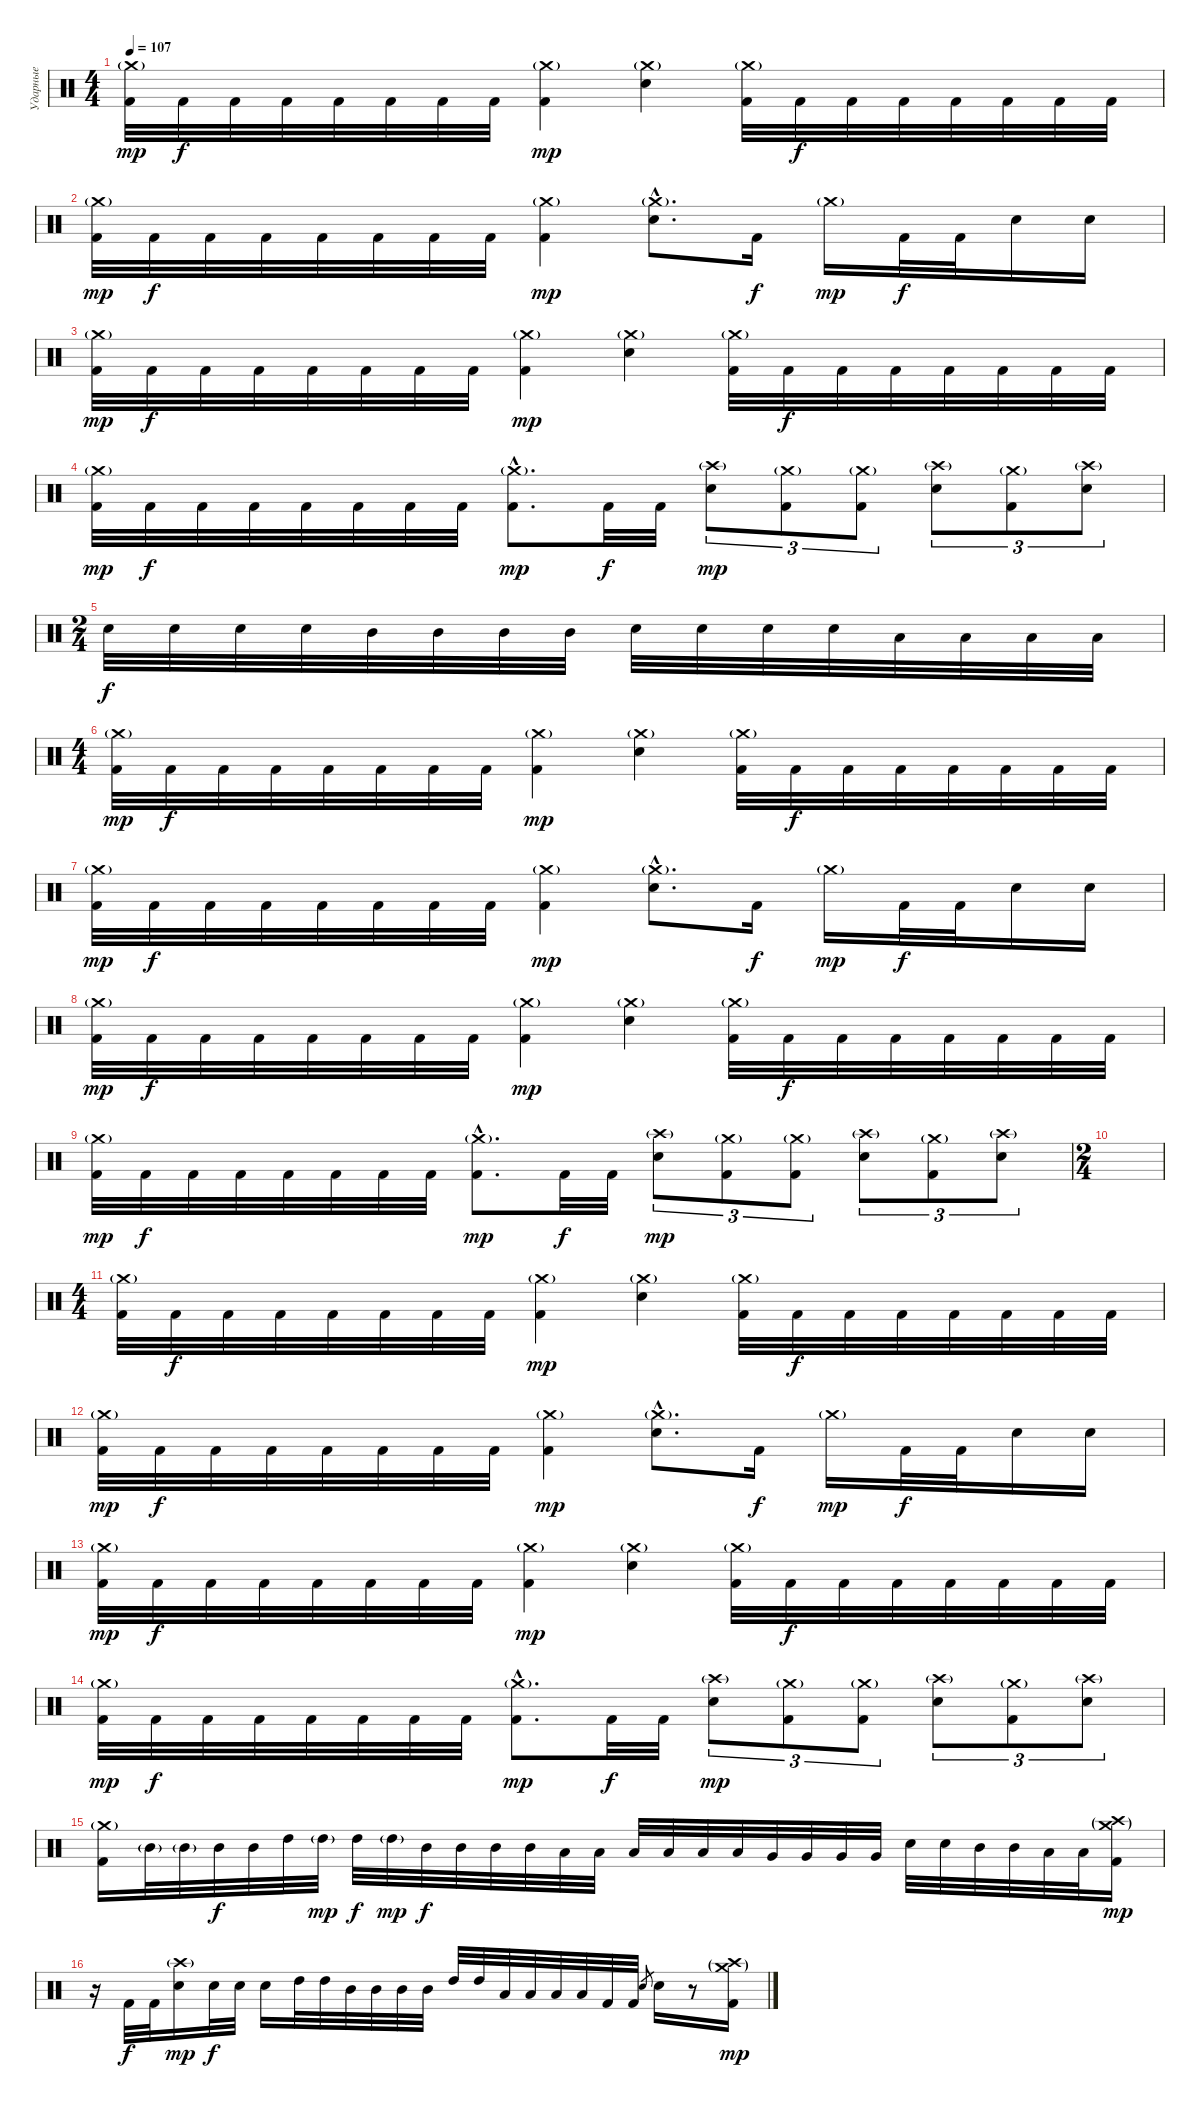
\track ("Ударные" "Ударные") {instrument percussion}
\staff {score}
\articulation defaults
\ts (4 4)
\tempo 107
\clef neutral
\ks c
("Crash medium (hit)"{g} "Kick (hit) 2").32{dy mp} "Kick (hit) 2".32{dy f} "Kick (hit) 2".32 "Kick (hit) 2".32 "Kick (hit) 2".32 "Kick (hit) 2".32 "Kick (hit) 2".32 "Kick (hit) 2".32 ("Crash medium (hit)"{g} "Kick (hit) 2").4{dy mp} ("Crash medium (hit)"{g} "Electric Snare (hit)").4 ("Crash medium (hit)"{g} "Kick (hit) 2").32 "Kick (hit) 2".32{dy f} "Kick (hit) 2".32 "Kick (hit) 2".32 "Kick (hit) 2".32 "Kick (hit) 2".32 "Kick (hit) 2".32 "Kick (hit) 2".32 |
("Crash medium (hit)"{g} "Kick (hit) 2").32{dy mp} "Kick (hit) 2".32{dy f} "Kick (hit) 2".32 "Kick (hit) 2".32 "Kick (hit) 2".32 "Kick (hit) 2".32 "Kick (hit) 2".32 "Kick (hit) 2".32 ("Crash medium (hit)"{g} "Kick (hit) 2").4{dy mp} ("Crash medium (hit)"{g hac} "Electric Snare (hit)"{hac}).8{d} "Kick (hit) 2".16{dy f} "Crash medium (hit)"{g}.16{dy mp} "Kick (hit) 2".32{dy f} "Kick (hit) 2".32 "Electric Snare (hit)".16 "Electric Snare (hit)".16 |
("Crash medium (hit)"{g} "Kick (hit) 2").32{dy mp} "Kick (hit) 2".32{dy f} "Kick (hit) 2".32 "Kick (hit) 2".32 "Kick (hit) 2".32 "Kick (hit) 2".32 "Kick (hit) 2".32 "Kick (hit) 2".32 ("Crash medium (hit)"{g} "Kick (hit) 2").4{dy mp} ("Crash medium (hit)"{g} "Electric Snare (hit)").4 ("Crash medium (hit)"{g} "Kick (hit) 2").32 "Kick (hit) 2".32{dy f} "Kick (hit) 2".32 "Kick (hit) 2".32 "Kick (hit) 2".32 "Kick (hit) 2".32 "Kick (hit) 2".32 "Kick (hit) 2".32 |
("Crash medium (hit)"{g} "Kick (hit) 2").32{dy mp} "Kick (hit) 2".32{dy f} "Kick (hit) 2".32 "Kick (hit) 2".32 "Kick (hit) 2".32 "Kick (hit) 2".32 "Kick (hit) 2".32 "Kick (hit) 2".32 ("Crash medium (hit)"{g hac} "Kick (hit) 2"{hac}).8{d dy mp} "Kick (hit) 2".32{dy f} "Kick (hit) 2".32 ("Crash high (hit)"{g} "Electric Snare (hit)").8{tu (3 2) dy mp} ("Crash medium (hit)"{g} "Kick (hit) 2").8{tu (3 2)} ("Crash medium (hit)"{g} "Kick (hit) 2").8{tu (3 2)} ("Crash high (hit)"{g} "Electric Snare (hit)").8{tu (3 2)} ("Crash medium (hit)"{g} "Kick (hit) 2").8{tu (3 2)} ("Crash high (hit)"{g} "Electric Snare (hit)").8{tu (3 2)} |
\ts (2 4)
"Electric Snare (hit)".32{dy f} "Electric Snare (hit)".32 "Electric Snare (hit)".32 "Electric Snare (hit)".32 "Mid Tom (hit)".32 "Mid Tom (hit)".32 "Mid Tom (hit)".32 "Mid Tom (hit)".32 "Electric Snare (hit)".32 "Electric Snare (hit)".32 "Electric Snare (hit)".32 "Electric Snare (hit)".32 "Low Tom (hit)".32 "Low Tom (hit)".32 "Low Tom (hit)".32 "Low Tom (hit)".32 |
\ts (4 4)
("Crash medium (hit)"{g} "Kick (hit) 2").32{dy mp} "Kick (hit) 2".32{dy f} "Kick (hit) 2".32 "Kick (hit) 2".32 "Kick (hit) 2".32 "Kick (hit) 2".32 "Kick (hit) 2".32 "Kick (hit) 2".32 ("Crash medium (hit)"{g} "Kick (hit) 2").4{dy mp} ("Crash medium (hit)"{g} "Electric Snare (hit)").4 ("Crash medium (hit)"{g} "Kick (hit) 2").32 "Kick (hit) 2".32{dy f} "Kick (hit) 2".32 "Kick (hit) 2".32 "Kick (hit) 2".32 "Kick (hit) 2".32 "Kick (hit) 2".32 "Kick (hit) 2".32 |
("Crash medium (hit)"{g} "Kick (hit) 2").32{dy mp} "Kick (hit) 2".32{dy f} "Kick (hit) 2".32 "Kick (hit) 2".32 "Kick (hit) 2".32 "Kick (hit) 2".32 "Kick (hit) 2".32 "Kick (hit) 2".32 ("Crash medium (hit)"{g} "Kick (hit) 2").4{dy mp} ("Crash medium (hit)"{g hac} "Electric Snare (hit)"{hac}).8{d} "Kick (hit) 2".16{dy f} "Crash medium (hit)"{g}.16{dy mp} "Kick (hit) 2".32{dy f} "Kick (hit) 2".32 "Electric Snare (hit)".16 "Electric Snare (hit)".16 |
("Crash medium (hit)"{g} "Kick (hit) 2").32{dy mp} "Kick (hit) 2".32{dy f} "Kick (hit) 2".32 "Kick (hit) 2".32 "Kick (hit) 2".32 "Kick (hit) 2".32 "Kick (hit) 2".32 "Kick (hit) 2".32 ("Crash medium (hit)"{g} "Kick (hit) 2").4{dy mp} ("Crash medium (hit)"{g} "Electric Snare (hit)").4 ("Crash medium (hit)"{g} "Kick (hit) 2").32 "Kick (hit) 2".32{dy f} "Kick (hit) 2".32 "Kick (hit) 2".32 "Kick (hit) 2".32 "Kick (hit) 2".32 "Kick (hit) 2".32 "Kick (hit) 2".32 |
("Crash medium (hit)"{g} "Kick (hit) 2").32{dy mp} "Kick (hit) 2".32{dy f} "Kick (hit) 2".32 "Kick (hit) 2".32 "Kick (hit) 2".32 "Kick (hit) 2".32 "Kick (hit) 2".32 "Kick (hit) 2".32 ("Crash medium (hit)"{g hac} "Kick (hit) 2"{hac}).8{d dy mp} "Kick (hit) 2".32{dy f} "Kick (hit) 2".32 ("Crash high (hit)"{g} "Electric Snare (hit)").8{tu (3 2) dy mp} ("Crash medium (hit)"{g} "Kick (hit) 2").8{tu (3 2)} ("Crash medium (hit)"{g} "Kick (hit) 2").8{tu (3 2)} ("Crash high (hit)"{g} "Electric Snare (hit)").8{tu (3 2)} ("Crash medium (hit)"{g} "Kick (hit) 2").8{tu (3 2)} ("Crash high (hit)"{g} "Electric Snare (hit)").8{tu (3 2)} |
\ts (2 4)
|
\ts (4 4)
("Crash medium (hit)"{g} "Kick (hit) 2").32 "Kick (hit) 2".32{dy f} "Kick (hit) 2".32 "Kick (hit) 2".32 "Kick (hit) 2".32 "Kick (hit) 2".32 "Kick (hit) 2".32 "Kick (hit) 2".32 ("Crash medium (hit)"{g} "Kick (hit) 2").4{dy mp} ("Crash medium (hit)"{g} "Electric Snare (hit)").4 ("Crash medium (hit)"{g} "Kick (hit) 2").32 "Kick (hit) 2".32{dy f} "Kick (hit) 2".32 "Kick (hit) 2".32 "Kick (hit) 2".32 "Kick (hit) 2".32 "Kick (hit) 2".32 "Kick (hit) 2".32 |
("Crash medium (hit)"{g} "Kick (hit) 2").32{dy mp} "Kick (hit) 2".32{dy f} "Kick (hit) 2".32 "Kick (hit) 2".32 "Kick (hit) 2".32 "Kick (hit) 2".32 "Kick (hit) 2".32 "Kick (hit) 2".32 ("Crash medium (hit)"{g} "Kick (hit) 2").4{dy mp} ("Crash medium (hit)"{g hac} "Electric Snare (hit)"{hac}).8{d} "Kick (hit) 2".16{dy f} "Crash medium (hit)"{g}.16{dy mp} "Kick (hit) 2".32{dy f} "Kick (hit) 2".32 "Electric Snare (hit)".16 "Electric Snare (hit)".16 |
("Crash medium (hit)"{g} "Kick (hit) 2").32{dy mp} "Kick (hit) 2".32{dy f} "Kick (hit) 2".32 "Kick (hit) 2".32 "Kick (hit) 2".32 "Kick (hit) 2".32 "Kick (hit) 2".32 "Kick (hit) 2".32 ("Crash medium (hit)"{g} "Kick (hit) 2").4{dy mp} ("Crash medium (hit)"{g} "Electric Snare (hit)").4 ("Crash medium (hit)"{g} "Kick (hit) 2").32 "Kick (hit) 2".32{dy f} "Kick (hit) 2".32 "Kick (hit) 2".32 "Kick (hit) 2".32 "Kick (hit) 2".32 "Kick (hit) 2".32 "Kick (hit) 2".32 |
("Crash medium (hit)"{g} "Kick (hit) 2").32{dy mp} "Kick (hit) 2".32{dy f} "Kick (hit) 2".32 "Kick (hit) 2".32 "Kick (hit) 2".32 "Kick (hit) 2".32 "Kick (hit) 2".32 "Kick (hit) 2".32 ("Crash medium (hit)"{g hac} "Kick (hit) 2"{hac}).8{d dy mp} "Kick (hit) 2".32{dy f} "Kick (hit) 2".32 ("Crash high (hit)"{g} "Electric Snare (hit)").8{tu (3 2) dy mp} ("Crash medium (hit)"{g} "Kick (hit) 2").8{tu (3 2)} ("Crash medium (hit)"{g} "Kick (hit) 2").8{tu (3 2)} ("Crash high (hit)"{g} "Electric Snare (hit)").8{tu (3 2)} ("Crash medium (hit)"{g} "Kick (hit) 2").8{tu (3 2)} ("Crash high (hit)"{g} "Electric Snare (hit)").8{tu (3 2)} |
("Crash medium (hit)"{g} "Kick (hit) 2").16 "Mid Tom (hit)"{g}.32 "Mid Tom (hit)"{g}.32 "Mid Tom (hit)".32{dy f} "Mid Tom (hit)".32 "High Tom (hit)".32 "High Tom (hit)"{g}.32{dy mp} "High Tom (hit)".32{dy f} "High Tom (hit)"{g}.32{dy mp} "Mid Tom (hit)".32{dy f} "Mid Tom (hit)".32 "Mid Tom (hit)".32 "Mid Tom (hit)".32 "Low Tom (hit)".32 "Low Tom (hit)".32 "Low Tom (hit)".32 "Low Tom (hit)".32 "Low Tom (hit)".32 "Low Tom (hit)".32 "Very Low Tom (hit)".32 "Very Low Tom (hit)".32 "Very Low Tom (hit)".32 "Very Low Tom (hit)".32 "Electric Snare (hit)".32 "Electric Snare (hit)".32 "Mid Tom (hit)".32 "Mid Tom (hit)".32 "Low Tom (hit)".32 "Low Tom (hit)".32 ("Crash high (hit)"{g} "Crash medium (hit)"{g} "Kick (hit) 2").16{dy mp} |
r.16 "Kick (hit) 2".32{dy f} "Kick (hit) 2".32 ("Crash high (hit)"{g} "Electric Snare (hit)").16{dy mp} "Electric Snare (hit)".32{dy f} "Electric Snare (hit)".32 "Electric Snare (hit)".16 "High Tom (hit)".32 "High Tom (hit)".32 "Mid Tom (hit)".32 "Mid Tom (hit)".32 "Mid Tom (hit)".32 "Mid Tom (hit)".32 "High Tom (hit)".32 "High Tom (hit)".32 "Low Tom (hit)".32 "Low Tom (hit)".32 "Low Tom (hit)".32 "Low Tom (hit)".32 "Kick (hit) 2".32 "Kick (hit) 2".32 "Electric Snare (hit)".8{gr} "Electric Snare (hit)".16 r.8 ("Crash high (hit)"{g} "Crash medium (hit)"{g} "Kick (hit) 2").16{dy mp}
